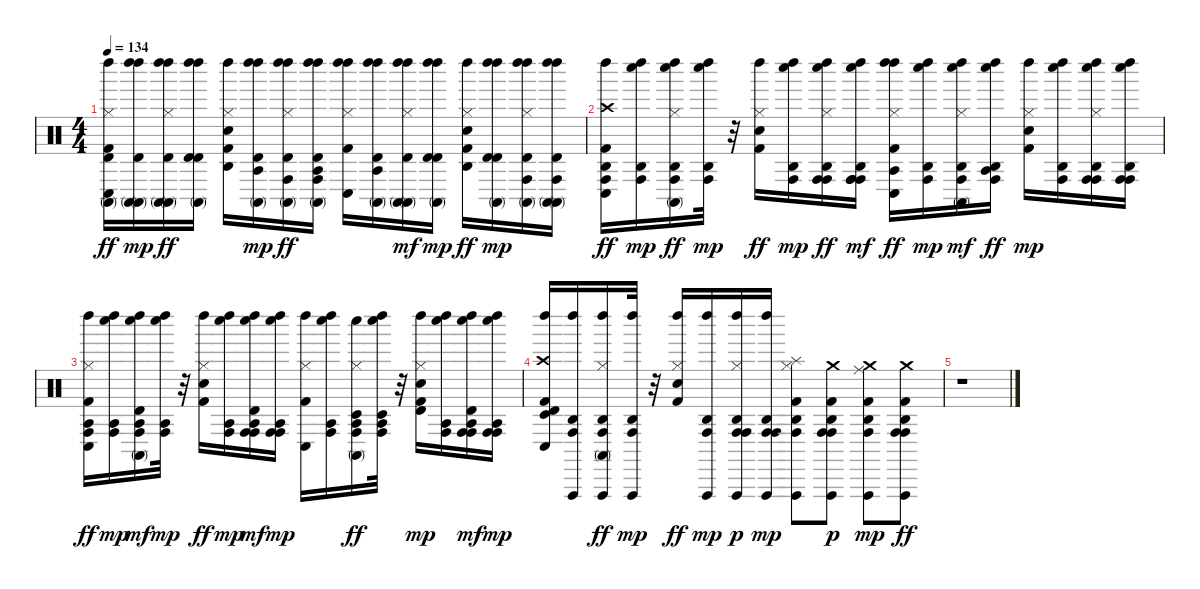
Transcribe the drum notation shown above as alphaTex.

\track "" {instrument percussion}
\staff {score}
\articulation defaults
\ts (4 4)
\tempo 134
\clef neutral
\ks c
("Left Maraca (hit)" "Conga low (hit)" "Hi-Hat (closed)" "Kick (hit) 2" "Timbale high (hit)" "Conga high (mute)").16{dy ff} ("Left Maraca (hit)" "Timbale high (hit)" "Conga high (mute)" "Left Maraca (hit)" "Conga high (mute)").16{dy mp} ("Left Maraca (hit)" "Timbale high (hit)" "Conga high (mute)" "Left Maraca (hit)" "Conga high (mute)" "Hi-Hat (closed)").16{dy ff} ("Left Maraca (hit)" "Timbale high (hit)" "Conga high (mute)" "Left Maraca (hit)" "Timbale high (hit)").16 ("Left Maraca (hit)" "Hi-Hat (closed)" "Snare (hit) 2" "Kick (hit) 2" "Agogo high (hit)").16 ("Left Maraca (hit)" "Timbale high (hit)" "Conga high (mute)" "Left Maraca (hit)" "Agogo tow (hit)").16{dy mp} ("Left Maraca (hit)" "Timbale high (hit)" "Conga high (mute)" "Left Maraca (hit)" "Conga high (hit)" "Hi-Hat (closed)").16{dy ff} ("Conga high (mute)" "Timbale high (hit)" "Left Maraca (hit)" "Conga high (hit)" "Left Maraca (hit)" "Agogo tow (hit)").16 ("Kick (hit) 2" "Hi-Hat (closed)" "Conga low (hit)" "Left Maraca (hit)" "Left Maraca (hit)").16 ("Left Maraca (hit)" "Timbale high (hit)" "Conga high (mute)" "Left Maraca (hit)" "Agogo tow (hit)").16 ("Left Maraca (hit)" "Timbale high (hit)" "Conga high (mute)" "Hi-Hat (closed)" "Conga high (mute)" "Left Maraca (hit)").16{dy mf} ("Left Maraca (hit)" "Timbale high (hit)" "Conga high (mute)" "Left Maraca (hit)" "Timbale high (hit)").16{dy mp} ("Kick (hit) 2" "Snare (hit) 2" "Hi-Hat (closed)" "Left Maraca (hit)" "Agogo high (hit)").16{dy ff} ("Left Maraca (hit)" "Timbale high (hit)" "Conga high (mute)" "Left Maraca (hit)" "Timbale high (hit)").16{dy mp} ("Left Maraca (hit)" "Timbale high (hit)" "Conga high (mute)" "Hi-Hat (closed)" "Conga high (hit)" "Left Maraca (hit)").16 ("Left Maraca (hit)" "Timbale high (hit)" "Conga high (mute)" "Left Maraca (hit)" "Conga high (hit)" "Conga high (mute)").16 |
("Left Maraca (hit)" "Conga low (hit)" "Crash high (hit)" "Kick (hit) 2" "Agogo high (hit)" "Conga high (hit)").16{dy ff} ("Whistle low (hit)" "Agogo high (hit)" "Conga high (hit)" "Left Maraca (hit)").16{dy mp} ("Whistle low (hit)" "Agogo high (hit)" "Conga high (hit)" "Left Maraca (hit)" "Conga high (mute)" "Hi-Hat (closed)").16{dy ff} ("Whistle low (hit)" "Agogo high (hit)" "Conga high (hit)" "Left Maraca (hit)").32{dy mp} r.32 ("Left Maraca (hit)" "Hi-Hat (closed)" "Snare (hit) 2" "Kick (hit) 2").16{dy ff} ("Whistle low (hit)" "Agogo high (hit)" "Conga high (hit)" "Left Maraca (hit)").16{dy mp} ("Whistle low (hit)" "Agogo high (hit)" "Conga high (hit)" "Left Maraca (hit)" "Conga high (hit)" "Hi-Hat (closed)").16{dy ff} ("Whistle low (hit)" "Agogo high (hit)" "Conga high (hit)" "Left Maraca (hit)" "Conga high (hit)" "Conga high (hit)").16{dy mf} ("Kick (hit) 2" "Hi-Hat (closed)" "Conga low (hit)" "Left Maraca (hit)" "Agogo tow (hit)" "Left Maraca (hit)").16{dy ff} ("Whistle low (hit)" "Agogo high (hit)" "Conga high (hit)" "Left Maraca (hit)").16{dy mp} ("Whistle low (hit)" "Agogo high (hit)" "Conga high (hit)" "Hi-Hat (closed)" "Conga high (mute)" "Left Maraca (hit)").16{dy mf} ("Whistle low (hit)" "Agogo high (hit)" "Conga high (hit)" "Left Maraca (hit)" "Agogo tow (hit)").16{dy ff} ("Kick (hit) 2" "Snare (hit) 2" "Hi-Hat (closed)" "Left Maraca (hit)").16{dy mp} ("Whistle low (hit)" "Agogo high (hit)" "Conga high (hit)" "Left Maraca (hit)").16 ("Conga high (hit)" "Agogo high (hit)" "Whistle low (hit)" "Hi-Hat (closed)" "Conga high (hit)" "Left Maraca (hit)").16 ("Whistle low (hit)" "Agogo high (hit)" "Conga high (hit)" "Conga high (hit)" "Left Maraca (hit)").16 |
("Left Maraca (hit)" "Conga low (hit)" "Hi-Hat (closed)" "Kick (hit) 2" "Agogo tow (hit)" "Conga high (hit)").16{dy ff} ("Whistle low (hit)" "Agogo tow (hit)" "Conga high (hit)" "Left Maraca (hit)").16{dy mp} ("Whistle low (hit)" "Agogo tow (hit)" "Conga high (hit)" "Left Maraca (hit)" "Timbale high (hit)" "Conga high (mute)").16{dy mf} ("Whistle low (hit)" "Agogo tow (hit)" "Conga high (hit)" "Left Maraca (hit)").32{dy mp} r.32 ("Left Maraca (hit)" "Hi-Hat (closed)" "Snare (hit) 2" "Kick (hit) 2").16{dy ff} ("Whistle low (hit)" "Agogo tow (hit)" "Conga high (hit)" "Left Maraca (hit)").16{dy mp} ("Whistle low (hit)" "Agogo tow (hit)" "Conga high (hit)" "Left Maraca (hit)" "Timbale high (hit)" "Conga high (hit)").16{dy mf} ("Whistle low (hit)" "Agogo tow (hit)" "Conga high (hit)" "Left Maraca (hit)" "Conga high (hit)").16{dy mp} ("Kick (hit) 2" "Hi-Hat (closed)" "Conga low (hit)" "Left Maraca (hit)").16 ("Whistle low (hit)" "Agogo tow (hit)" "Conga high (hit)" "Left Maraca (hit)").16 ("Whistle low (hit)" "Agogo tow (hit)" "Conga high (hit)" "Hi-Hat (closed)" "Conga high (mute)" "Timbale low (hit)").16{dy ff} ("Whistle low (hit)" "Agogo tow (hit)" "Conga high (hit)" "Left Maraca (hit)" "Timbale low (hit)").32 r.32 ("Kick (hit) 2" "Snare (hit) 2" "Hi-Hat (closed)" "Timbale high (hit)" "Left Maraca (hit)").16{dy mp} ("Whistle low (hit)" "Agogo tow (hit)" "Conga high (hit)" "Left Maraca (hit)").16 ("Whistle low (hit)" "Agogo tow (hit)" "Conga high (hit)" "Left Maraca (hit)" "Timbale high (hit)" "Conga high (hit)").16{dy mf} ("Whistle low (hit)" "Agogo tow (hit)" "Conga high (hit)" "Conga high (hit)" "Left Maraca (hit)").16{dy mp} |
("Left Maraca (hit)" "Timbale low (hit)" "Timbale high (hit)" "Conga low (hit)" "Crash high (hit)" "Kick (hit) 2").16 ("Agogo high (hit)" "Conga high (hit)" "Vibraslap (hit)" "Left Maraca (hit)").16 ("Agogo high (hit)" "Conga high (hit)" "Vibraslap (hit)" "Left Maraca (hit)" "Conga high (mute)" "Hi-Hat (closed)").16{dy ff} ("Agogo high (hit)" "Conga high (hit)" "Vibraslap (hit)" "Left Maraca (hit)").32{dy mp} r.32 ("Left Maraca (hit)" "Hi-Hat (closed)" "Snare (hit) 2" "Kick (hit) 2").16{dy ff} ("Vibraslap (hit)" "Conga high (hit)" "Agogo high (hit)" "Left Maraca (hit)").16{dy mp} ("Agogo high (hit)" "Conga high (hit)" "Vibraslap (hit)" "Hi-Hat (closed)" "Conga high (hit)" "Left Maraca (hit)").16{dy p} ("Agogo high (hit)" "Conga high (hit)" "Vibraslap (hit)" "Left Maraca (hit)" "Conga high (hit)").16{dy mp} ("Agogo high (hit)" "Conga high (hit)" "Vibraslap (hit)" "Kick (hit) 2" "Hi-Hat (closed)" "Splash (hit)").8 ("Agogo high (hit)" "Conga high (hit)" "Vibraslap (hit)" "Kick (hit) 2" "Crash medium (hit)" "Conga high (hit)").8{dy p} ("Agogo high (hit)" "Conga high (hit)" "Vibraslap (hit)" "Kick (hit) 2" "Crash medium (hit)" "Ride (middle)").8{dy mp} ("Agogo high (hit)" "Conga high (hit)" "Vibraslap (hit)" "Crash medium (hit)" "Kick (hit) 2" "Conga high (hit)").8{dy ff} |
r.1
